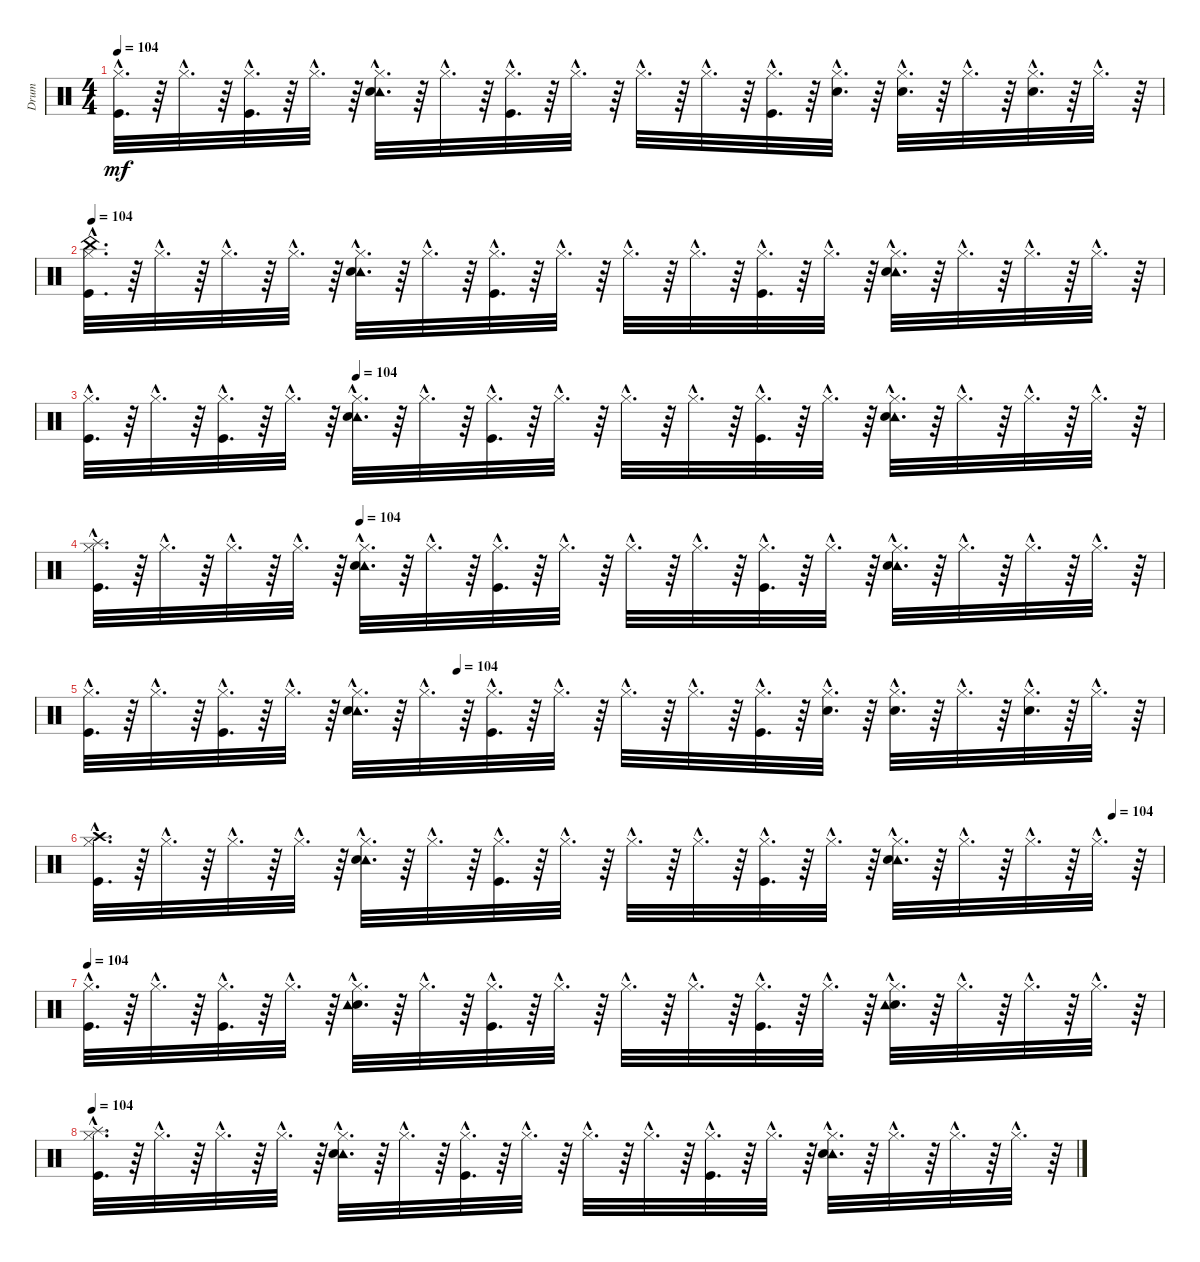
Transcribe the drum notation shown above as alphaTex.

\track ("Drum" "Drum") {instrument percussion}
\staff {score}
\articulation defaults
\ts (4 4)
\tempo 104
\clef neutral
\ks c
("Kick (hit)"{hac} "Hi-Hat (closed)"{hac}).32{d dy mf} r.64 "Hi-Hat (closed)"{hac}.32{d} r.64 ("Hi-Hat (closed)"{hac} "Kick (hit)"{hac}).32{d} r.64 "Hi-Hat (closed)"{hac}.32{d} r.64 ("Tambourine (hit)"{hac} "Snare (hit) 2"{hac} "Hi-Hat (closed)"{hac}).32{d} r.64 "Hi-Hat (closed)"{hac}.32{d} r.64 ("Kick (hit)"{hac} "Hi-Hat (closed)"{hac}).32{d} r.64 "Hi-Hat (closed)"{hac}.32{d} r.64 "Hi-Hat (closed)"{hac}.32{d} r.64 "Hi-Hat (closed)"{hac}.32{d} r.64 ("Kick (hit)"{hac} "Hi-Hat (closed)"{hac}).32{d} r.64 ("Hi-Hat (closed)"{hac} "Snare (hit) 2"{hac}).32{d} r.64 ("Snare (hit) 2"{hac} "Hi-Hat (closed)"{hac}).32{d} r.64 "Hi-Hat (closed)"{hac}.32{d} r.64 ("Hi-Hat (closed)"{hac} "Electric Snare (hit)"{hac}).32{d} r.64 "Hi-Hat (closed)"{hac}.32{d} r.64 |
\tempo 104
("Kick (hit)"{hac} "China (hit)"{hac} "Hi-Hat (closed)"{hac}).32{d} r.64 "Hi-Hat (closed)"{hac}.32{d} r.64 "Hi-Hat (closed)"{hac}.32{d} r.64 "Hi-Hat (closed)"{hac}.32{d} r.64 ("Tambourine (hit)"{hac} "Snare (hit) 2"{hac} "Hi-Hat (closed)"{hac}).32{d} r.64 "Hi-Hat (closed)"{hac}.32{d} r.64 ("Kick (hit)"{hac} "Hi-Hat (closed)"{hac}).32{d} r.64 "Hi-Hat (closed)"{hac}.32{d} r.64 "Hi-Hat (closed)"{hac}.32{d} r.64 "Hi-Hat (closed)"{hac}.32{d} r.64 ("Kick (hit)"{hac} "Hi-Hat (closed)"{hac}).32{d} r.64 "Hi-Hat (closed)"{hac}.32{d} r.64 ("Tambourine (hit)"{hac} "Snare (hit) 2"{hac} "Hi-Hat (closed)"{hac}).32{d} r.64 "Hi-Hat (closed)"{hac}.32{d} r.64 "Hi-Hat (closed)"{hac}.32{d} r.64 "Hi-Hat (closed)"{hac}.32{d} r.64 |
\tempo (104 0.25)
("Hi-Hat (closed)"{hac} "Kick (hit)"{hac}).32{d} r.64 "Hi-Hat (closed)"{hac}.32{d} r.64 ("Kick (hit)"{hac} "Hi-Hat (closed)"{hac}).32{d} r.64 "Hi-Hat (closed)"{hac}.32{d} r.64 ("Tambourine (hit)"{hac} "Hi-Hat (closed)"{hac} "Snare (hit) 2"{hac}).32{d} r.64 "Hi-Hat (closed)"{hac}.32{d} r.64 ("Hi-Hat (closed)"{hac} "Kick (hit)"{hac}).32{d} r.64 "Hi-Hat (closed)"{hac}.32{d} r.64 "Hi-Hat (closed)"{hac}.32{d} r.64 "Hi-Hat (closed)"{hac}.32{d} r.64 ("Hi-Hat (closed)"{hac} "Kick (hit)"{hac}).32{d} r.64 "Hi-Hat (closed)"{hac}.32{d} r.64 ("Tambourine (hit)"{hac} "Hi-Hat (closed)"{hac} "Snare (hit) 2"{hac}).32{d} r.64 "Hi-Hat (closed)"{hac}.32{d} r.64 "Hi-Hat (closed)"{hac}.32{d} r.64 "Hi-Hat (closed)"{hac}.32{d} r.64 |
\tempo (104 0.25)
("Hi-Hat (closed)"{hac} "Kick (hit)"{hac} "Splash (hit)"{hac}).32{d} r.64 "Hi-Hat (closed)"{hac}.32{d} r.64 "Hi-Hat (closed)"{hac}.32{d} r.64 "Hi-Hat (closed)"{hac}.32{d} r.64 ("Tambourine (hit)"{hac} "Hi-Hat (closed)"{hac} "Snare (hit) 2"{hac}).32{d} r.64 "Hi-Hat (closed)"{hac}.32{d} r.64 ("Hi-Hat (closed)"{hac} "Kick (hit)"{hac}).32{d} r.64 "Hi-Hat (closed)"{hac}.32{d} r.64 "Hi-Hat (closed)"{hac}.32{d} r.64 "Hi-Hat (closed)"{hac}.32{d} r.64 ("Hi-Hat (closed)"{hac} "Kick (hit)"{hac}).32{d} r.64 "Hi-Hat (closed)"{hac}.32{d} r.64 ("Tambourine (hit)"{hac} "Hi-Hat (closed)"{hac} "Snare (hit) 2"{hac}).32{d} r.64 "Hi-Hat (closed)"{hac}.32{d} r.64 "Hi-Hat (closed)"{hac}.32{d} r.64 "Hi-Hat (closed)"{hac}.32{d} r.64 |
\tempo (104 0.34375)
("Kick (hit)"{hac} "Hi-Hat (closed)"{hac}).32{d} r.64 "Hi-Hat (closed)"{hac}.32{d} r.64 ("Hi-Hat (closed)"{hac} "Kick (hit)"{hac}).32{d} r.64 "Hi-Hat (closed)"{hac}.32{d} r.64 ("Tambourine (hit)"{hac} "Snare (hit) 2"{hac} "Hi-Hat (closed)"{hac}).32{d} r.64 "Hi-Hat (closed)"{hac}.32{d} r.64 ("Kick (hit)"{hac} "Hi-Hat (closed)"{hac}).32{d} r.64 "Hi-Hat (closed)"{hac}.32{d} r.64 "Hi-Hat (closed)"{hac}.32{d} r.64 "Hi-Hat (closed)"{hac}.32{d} r.64 ("Kick (hit)"{hac} "Hi-Hat (closed)"{hac}).32{d} r.64 ("Hi-Hat (closed)"{hac} "Snare (hit) 2"{hac}).32{d} r.64 ("Snare (hit) 2"{hac} "Hi-Hat (closed)"{hac}).32{d} r.64 "Hi-Hat (closed)"{hac}.32{d} r.64 ("Hi-Hat (closed)"{hac} "Electric Snare (hit)"{hac}).32{d} r.64 "Hi-Hat (closed)"{hac}.32{d} r.64 |
\tempo (104 0.953125)
("Hi-Hat (closed)"{hac} "Crash high (hit)"{hac} "Kick (hit)"{hac}).32{d} r.64 "Hi-Hat (closed)"{hac}.32{d} r.64 "Hi-Hat (closed)"{hac}.32{d} r.64 "Hi-Hat (closed)"{hac}.32{d} r.64 ("Tambourine (hit)"{hac} "Hi-Hat (closed)"{hac} "Snare (hit) 2"{hac}).32{d} r.64 "Hi-Hat (closed)"{hac}.32{d} r.64 ("Hi-Hat (closed)"{hac} "Kick (hit)"{hac}).32{d} r.64 "Hi-Hat (closed)"{hac}.32{d} r.64 "Hi-Hat (closed)"{hac}.32{d} r.64 "Hi-Hat (closed)"{hac}.32{d} r.64 ("Hi-Hat (closed)"{hac} "Kick (hit)"{hac}).32{d} r.64 "Hi-Hat (closed)"{hac}.32{d} r.64 ("Tambourine (hit)"{hac} "Hi-Hat (closed)"{hac} "Snare (hit) 2"{hac}).32{d} r.64 "Hi-Hat (closed)"{hac}.32{d} r.64 "Hi-Hat (closed)"{hac}.32{d} r.64 "Hi-Hat (closed)"{hac}.32{d} r.64 |
\tempo 104
("Kick (hit)"{hac} "Hi-Hat (closed)"{hac}).32{d} r.64 "Hi-Hat (closed)"{hac}.32{d} r.64 ("Kick (hit)"{hac} "Hi-Hat (closed)"{hac}).32{d} r.64 "Hi-Hat (closed)"{hac}.32{d} r.64 ("Hi-Hat (closed)"{hac} "Snare (hit) 2"{hac} "Tambourine (hit)"{hac}).32{d} r.64 "Hi-Hat (closed)"{hac}.32{d} r.64 ("Hi-Hat (closed)"{hac} "Kick (hit)"{hac}).32{d} r.64 "Hi-Hat (closed)"{hac}.32{d} r.64 "Hi-Hat (closed)"{hac}.32{d} r.64 "Hi-Hat (closed)"{hac}.32{d} r.64 ("Kick (hit)"{hac} "Hi-Hat (closed)"{hac}).32{d} r.64 "Hi-Hat (closed)"{hac}.32{d} r.64 ("Snare (hit) 2"{hac} "Tambourine (hit)"{hac} "Hi-Hat (closed)"{hac}).32{d} r.64 "Hi-Hat (closed)"{hac}.32{d} r.64 "Hi-Hat (closed)"{hac}.32{d} r.64 "Hi-Hat (closed)"{hac}.32{d} r.64 |
\tempo 104
("Splash (hit)"{hac} "Kick (hit)"{hac} "Hi-Hat (closed)"{hac}).32{d} r.64 "Hi-Hat (closed)"{hac}.32{d} r.64 "Hi-Hat (closed)"{hac}.32{d} r.64 "Hi-Hat (closed)"{hac}.32{d} r.64 ("Tambourine (hit)"{hac} "Snare (hit) 2"{hac} "Hi-Hat (closed)"{hac}).32{d} r.64 "Hi-Hat (closed)"{hac}.32{d} r.64 ("Kick (hit)"{hac} "Hi-Hat (closed)"{hac}).32{d} r.64 "Hi-Hat (closed)"{hac}.32{d} r.64 "Hi-Hat (closed)"{hac}.32{d} r.64 "Hi-Hat (closed)"{hac}.32{d} r.64 ("Kick (hit)"{hac} "Hi-Hat (closed)"{hac}).32{d} r.64 "Hi-Hat (closed)"{hac}.32{d} r.64 ("Tambourine (hit)"{hac} "Snare (hit) 2"{hac} "Hi-Hat (closed)"{hac}).32{d} r.64 "Hi-Hat (closed)"{hac}.32{d} r.64 "Hi-Hat (closed)"{hac}.32{d} r.64 "Hi-Hat (closed)"{hac}.32{d} r.64
